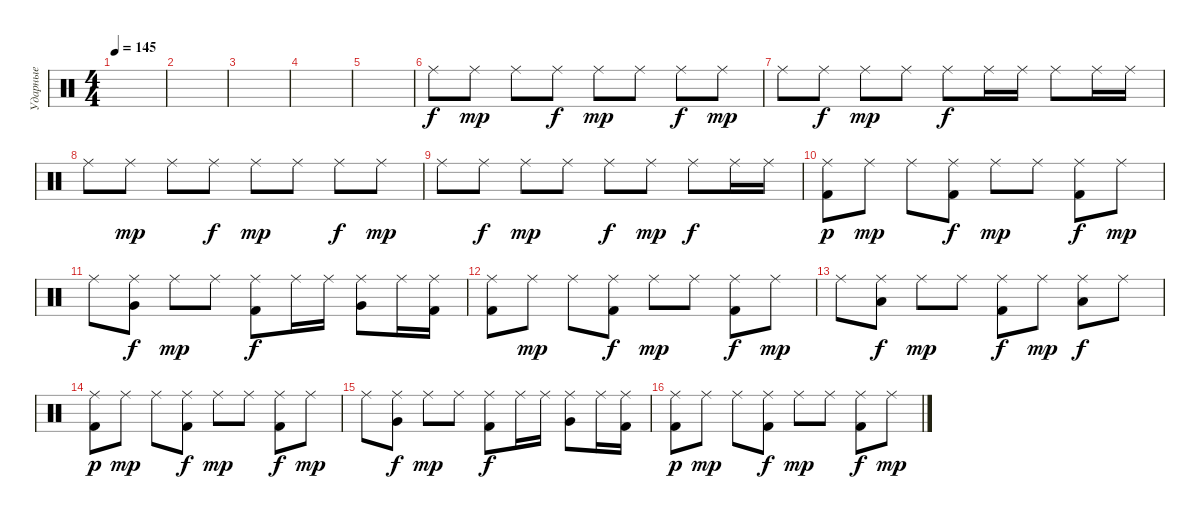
\track ("Ударные" "Ударные") {instrument percussion}
\staff {score}
\articulation defaults
\ts (4 4)
\tempo 145
\clef neutral
\ks c
|
|
|
|
|
"Ride (middle)".8 "Ride (middle)".8{dy mp} "Ride (middle)".8 "Ride (middle)".8{dy f} "Ride (middle)".8{dy mp} "Ride (middle)".8 "Ride (middle)".8{dy f} "Ride (middle)".8{dy mp} |
"Ride (middle)".8 "Ride (middle)".8{dy f} "Ride (middle)".8{dy mp} "Ride (middle)".8 "Ride (middle)".8{dy f} "Ride (middle)".16 "Ride (middle)".16 "Ride (middle)".8 "Ride (middle)".16 "Ride (middle)".16 |
"Ride (middle)".8 "Ride (middle)".8{dy mp} "Ride (middle)".8 "Ride (middle)".8{dy f} "Ride (middle)".8{dy mp} "Ride (middle)".8 "Ride (middle)".8{dy f} "Ride (middle)".8{dy mp} |
"Ride (middle)".8 "Ride (middle)".8{dy f} "Ride (middle)".8{dy mp} "Ride (middle)".8 "Ride (middle)".8{dy f} "Ride (middle)".8{dy mp} "Ride (middle)".8{dy f} "Ride (middle)".16 "Ride (middle)".16 |
("Kick (hit) 2" "Ride (middle)").8{dy p} "Ride (middle)".8{dy mp} "Ride (middle)".8 ("Kick (hit) 2" "Ride (middle)").8{dy f} "Ride (middle)".8{dy mp} "Ride (middle)".8 ("Kick (hit) 2" "Ride (middle)").8{dy f} "Ride (middle)".8{dy mp} |
"Ride (middle)".8 ("Very Low Tom (hit)" "Ride (middle)").8{dy f} "Ride (middle)".8{dy mp} "Ride (middle)".8 ("Kick (hit) 2" "Ride (middle)").8{dy f} "Ride (middle)".16 "Ride (middle)".16 ("Very Low Tom (hit)" "Ride (middle)").8 "Ride (middle)".16 ("Kick (hit) 2" "Ride (middle)").16 |
("Kick (hit) 2" "Ride (middle)").8 "Ride (middle)".8{dy mp} "Ride (middle)".8 ("Kick (hit) 2" "Ride (middle)").8{dy f} "Ride (middle)".8{dy mp} "Ride (middle)".8 ("Kick (hit) 2" "Ride (middle)").8{dy f} "Ride (middle)".8{dy mp} |
"Ride (middle)".8 ("Low Floor Tom (hit)" "Ride (middle)").8{dy f} "Ride (middle)".8{dy mp} "Ride (middle)".8 ("Kick (hit) 2" "Ride (middle)").8{dy f} "Ride (middle)".8{dy mp} ("Low Floor Tom (hit)" "Ride (middle)").8{dy f} "Ride (middle)".8 |
("Kick (hit) 2" "Ride (middle)").8{dy p} "Ride (middle)".8{dy mp} "Ride (middle)".8 ("Kick (hit) 2" "Ride (middle)").8{dy f} "Ride (middle)".8{dy mp} "Ride (middle)".8 ("Kick (hit) 2" "Ride (middle)").8{dy f} "Ride (middle)".8{dy mp} |
"Ride (middle)".8 ("Very Low Tom (hit)" "Ride (middle)").8{dy f} "Ride (middle)".8{dy mp} "Ride (middle)".8 ("Kick (hit) 2" "Ride (middle)").8{dy f} "Ride (middle)".16 "Ride (middle)".16 ("Very Low Tom (hit)" "Ride (middle)").8 "Ride (middle)".16 ("Kick (hit) 2" "Ride (middle)").16 |
("Kick (hit) 2" "Ride (middle)").8{dy p} "Ride (middle)".8{dy mp} "Ride (middle)".8 ("Kick (hit) 2" "Ride (middle)").8{dy f} "Ride (middle)".8{dy mp} "Ride (middle)".8 ("Kick (hit) 2" "Ride (middle)").8{dy f} "Ride (middle)".8{dy mp}
